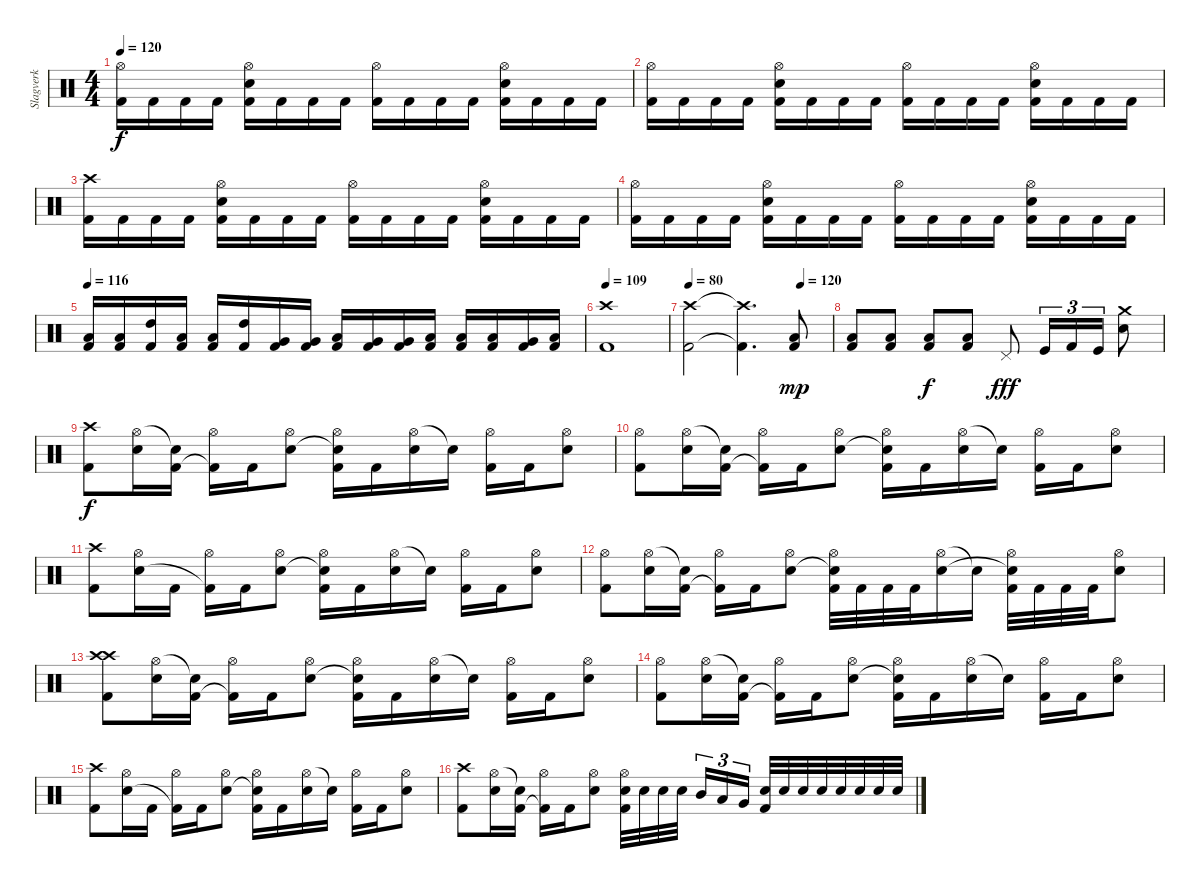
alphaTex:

\track ("Slagverk" "Slagverk") {instrument percussion}
\staff {score}
\articulation defaults
\ts (4 4)
\tempo 120
\clef neutral
\ks c
("Hi-Hat (open)" "Kick (hit) 2").16{dy f} "Kick (hit) 2".16 "Kick (hit) 2".16 "Kick (hit) 2".16 ("Hi-Hat (open)" "Snare (hit) 2" "Kick (hit) 2").16 "Kick (hit) 2".16 "Kick (hit) 2".16 "Kick (hit) 2".16 ("Hi-Hat (open)" "Kick (hit) 2").16 "Kick (hit) 2".16 "Kick (hit) 2".16 "Kick (hit) 2".16 ("Hi-Hat (open)" "Snare (hit) 2" "Kick (hit) 2").16 "Kick (hit) 2".16 "Kick (hit) 2".16 "Kick (hit) 2".16 |
("Hi-Hat (open)" "Kick (hit) 2").16 "Kick (hit) 2".16 "Kick (hit) 2".16 "Kick (hit) 2".16 ("Hi-Hat (open)" "Snare (hit) 2" "Kick (hit) 2").16 "Kick (hit) 2".16 "Kick (hit) 2".16 "Kick (hit) 2".16 ("Hi-Hat (open)" "Kick (hit) 2").16 "Kick (hit) 2".16 "Kick (hit) 2".16 "Kick (hit) 2".16 ("Hi-Hat (open)" "Snare (hit) 2" "Kick (hit) 2").16 "Kick (hit) 2".16 "Kick (hit) 2".16 "Kick (hit) 2".16 |
("Crash high (hit)" "Kick (hit) 2").16 "Kick (hit) 2".16 "Kick (hit) 2".16 "Kick (hit) 2".16 ("Hi-Hat (open)" "Snare (hit) 2" "Kick (hit) 2").16 "Kick (hit) 2".16 "Kick (hit) 2".16 "Kick (hit) 2".16 ("Hi-Hat (open)" "Kick (hit) 2").16 "Kick (hit) 2".16 "Kick (hit) 2".16 "Kick (hit) 2".16 ("Hi-Hat (open)" "Snare (hit) 2" "Kick (hit) 2").16 "Kick (hit) 2".16 "Kick (hit) 2".16 "Kick (hit) 2".16 |
("Hi-Hat (open)" "Kick (hit) 2").16 "Kick (hit) 2".16 "Kick (hit) 2".16 "Kick (hit) 2".16 ("Hi-Hat (open)" "Snare (hit) 2" "Kick (hit) 2").16 "Kick (hit) 2".16 "Kick (hit) 2".16 "Kick (hit) 2".16 ("Hi-Hat (open)" "Kick (hit) 2").16 "Kick (hit) 2".16 "Kick (hit) 2".16 "Kick (hit) 2".16 ("Hi-Hat (open)" "Snare (hit) 2" "Kick (hit) 2").16 "Kick (hit) 2".16 "Kick (hit) 2".16 "Kick (hit) 2".16 |
\tempo 116
("Low Tom (hit)" "Kick (hit) 2").16 ("Low Tom (hit)" "Kick (hit) 2").16 ("High Tom (hit)" "Kick (hit) 2").16 ("Low Tom (hit)" "Kick (hit) 2").16 ("Low Tom (hit)" "Kick (hit) 2").16 ("High Tom (hit)" "Kick (hit) 2").16 ("Very Low Tom (hit)" "Kick (hit) 2").16 ("Very Low Tom (hit)" "Kick (hit) 2").16 ("Low Tom (hit)" "Kick (hit) 2").16 ("Very Low Tom (hit)" "Kick (hit) 2").16 ("Very Low Tom (hit)" "Kick (hit) 2").16 ("Low Tom (hit)" "Kick (hit) 2").16 ("Low Floor Tom (hit)" "Kick (hit) 2").16 ("Low Floor Tom (hit)" "Kick (hit) 2").16 ("Very Low Tom (hit)" "Kick (hit) 2").16 ("Low Floor Tom (hit)" "Kick (hit) 2").16 |
\tempo 109
("Kick (hit) 2" "Crash high (hit)").1{volume 11} |
\tempo 80
\tempo (120 0.78125)
("Kick (hit) 2" "Crash high (hit)").2{volume 16} ("Kick (hit) 2"{t} "Crash high (hit)"{t}).4{d} ("Low Floor Tom (hit)" "Kick (hit) 2").8{dy mp} |
("Low Floor Tom (hit)" "Kick (hit) 2").8 ("Low Floor Tom (hit)" "Kick (hit) 2").8 ("Low Floor Tom (hit)" "Kick (hit) 2").8{dy f} ("Low Floor Tom (hit)" "Kick (hit) 2").8 "Pedal Hi-Hat (hit)".8{dy fff} "Kick (hit)".16{tu (3 2)} "Kick (hit) 2".16{tu (3 2)} "Kick (hit)".16{tu (3 2)} ("Snare (hit) 2" "Crash medium (hit)").8 |
("Crash high (hit)" "Kick (hit) 2").8{dy f} ("Hi-Hat (open)" "Electric Snare (hit)").16 ("Snare (hit)"{t} "Kick (hit) 2").16 ("Hi-Hat (open)" "Kick (hit) 2"{t}).16 "Kick (hit) 2".16 ("Hi-Hat (open)" "Electric Snare (hit)").8 ("Hi-Hat (open)" "Snare (hit) 2"{t} "Kick (hit) 2").16 "Kick (hit) 2".16 ("Hi-Hat (open)" "Electric Snare (hit)").16 "Snare (hit) 2"{t}.16 ("Hi-Hat (open)" "Kick (hit) 2").16 "Kick (hit) 2".16 ("Hi-Hat (open)" "Electric Snare (hit)").8 |
("Hi-Hat (open)" "Kick (hit) 2").8 ("Hi-Hat (open)" "Electric Snare (hit)").16 ("Snare (hit)"{t} "Kick (hit) 2").16 ("Hi-Hat (open)" "Kick (hit) 2"{t}).16 "Kick (hit) 2".16 ("Hi-Hat (open)" "Electric Snare (hit)").8 ("Hi-Hat (open)" "Snare (hit) 2"{t} "Kick (hit) 2").16 "Kick (hit) 2".16 ("Hi-Hat (open)" "Electric Snare (hit)").16 "Snare (hit) 2"{t}.16 ("Hi-Hat (open)" "Kick (hit) 2").16 "Kick (hit) 2".16 ("Hi-Hat (open)" "Electric Snare (hit)").8 |
("Crash high (hit)" "Kick (hit) 2").8 ("Hi-Hat (open)" "Electric Snare (hit)").16 "Kick (hit) 2".16 ("Hi-Hat (open)" "Kick (hit) 2"{t}).16 "Kick (hit) 2".16 ("Hi-Hat (open)" "Electric Snare (hit)").8 ("Hi-Hat (open)" "Snare (hit) 2"{t} "Kick (hit) 2").16 "Kick (hit) 2".16 ("Hi-Hat (open)" "Electric Snare (hit)").16 "Snare (hit) 2"{t}.16 ("Hi-Hat (open)" "Kick (hit) 2").16 "Kick (hit) 2".16 ("Hi-Hat (open)" "Electric Snare (hit)").8 |
("Hi-Hat (open)" "Kick (hit) 2").8 ("Hi-Hat (open)" "Electric Snare (hit)").16 ("Snare (hit)"{t} "Kick (hit) 2").16 ("Hi-Hat (open)" "Kick (hit) 2"{t}).16 "Kick (hit) 2".16 ("Hi-Hat (open)" "Electric Snare (hit)").8 ("Hi-Hat (open)" "Snare (hit) 2"{t} "Kick (hit) 2").32 "Kick (hit) 2".32 "Kick (hit) 2".32 "Kick (hit) 2".32 ("Hi-Hat (open)" "Electric Snare (hit)").16 "Snare (hit) 2"{t}.16 ("Hi-Hat (open)" "Snare (hit) 2"{t} "Kick (hit) 2").32 "Kick (hit) 2".32 "Kick (hit) 2".32 "Kick (hit) 2".32 ("Hi-Hat (open)" "Electric Snare (hit)").8 |
("Crash high (hit)" "Crash high (hit)" "Kick (hit) 2").8{volume 16} ("Hi-Hat (open)" "Electric Snare (hit)").16 ("Snare (hit)"{t} "Kick (hit) 2").16 ("Hi-Hat (open)" "Kick (hit) 2"{t}).16 "Kick (hit) 2".16 ("Hi-Hat (open)" "Electric Snare (hit)").8 ("Hi-Hat (open)" "Snare (hit) 2"{t} "Kick (hit) 2").16 "Kick (hit) 2".16 ("Hi-Hat (open)" "Electric Snare (hit)").16 "Snare (hit) 2"{t}.16 ("Hi-Hat (open)" "Kick (hit) 2").16 "Kick (hit) 2".16 ("Hi-Hat (open)" "Electric Snare (hit)").8 |
("Hi-Hat (open)" "Kick (hit) 2").8 ("Hi-Hat (open)" "Electric Snare (hit)").16 ("Snare (hit)"{t} "Kick (hit) 2").16 ("Hi-Hat (open)" "Kick (hit) 2"{t}).16 "Kick (hit) 2".16 ("Hi-Hat (open)" "Electric Snare (hit)").8 ("Hi-Hat (open)" "Snare (hit) 2"{t} "Kick (hit) 2").16 "Kick (hit) 2".16 ("Hi-Hat (open)" "Electric Snare (hit)").16 "Snare (hit) 2"{t}.16 ("Hi-Hat (open)" "Kick (hit) 2").16 "Kick (hit) 2".16 ("Hi-Hat (open)" "Electric Snare (hit)").8 |
("Crash high (hit)" "Kick (hit) 2").8 ("Hi-Hat (open)" "Electric Snare (hit)").16 "Kick (hit) 2".16 ("Hi-Hat (open)" "Kick (hit) 2"{t}).16 "Kick (hit) 2".16 ("Hi-Hat (open)" "Electric Snare (hit)").8 ("Hi-Hat (open)" "Snare (hit) 2"{t} "Kick (hit) 2").16 "Kick (hit) 2".16 ("Hi-Hat (open)" "Electric Snare (hit)").16 "Snare (hit) 2"{t}.16 ("Hi-Hat (open)" "Kick (hit) 2").16 "Kick (hit) 2".16 ("Hi-Hat (open)" "Electric Snare (hit)").8 |
("Crash high (hit)" "Kick (hit) 2").8 ("Hi-Hat (open)" "Electric Snare (hit)").16 ("Snare (hit)"{t} "Kick (hit) 2").16 ("Hi-Hat (open)" "Kick (hit) 2"{t}).16 "Kick (hit) 2".16 ("Hi-Hat (open)" "Electric Snare (hit)").8 ("Hi-Hat (open)" "Electric Snare (hit)" "Kick (hit) 2").32 "Electric Snare (hit)".32 "Electric Snare (hit)".32 "Electric Snare (hit)".32{beam splitsecondary} "Mid Tom (hit)".16{tu (3 2)} "Low Tom (hit)".16{tu (3 2)} "Very Low Tom (hit)".16{tu (3 2)} ("Electric Snare (hit)" "Kick (hit) 2").32 "Electric Snare (hit)".32 "Electric Snare (hit)".32 "Electric Snare (hit)".32 "Electric Snare (hit)".32 "Electric Snare (hit)".32 "Electric Snare (hit)".32 "Electric Snare (hit)".32
